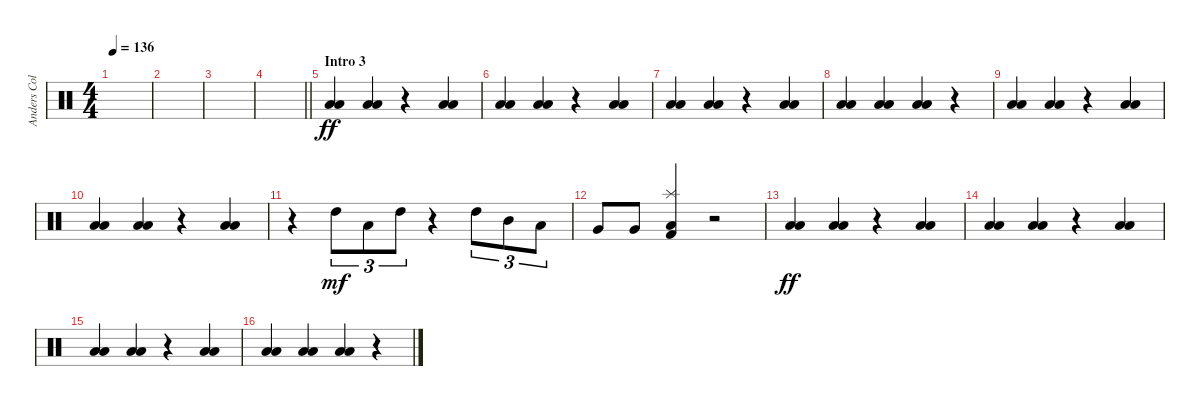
\track ("Anders Colsefni" "Anders Col") {instrument percussion}
\staff {score}
\articulation defaults
\ts (4 4)
\tempo 136
\clef neutral
\ks c
|
|
|
\barLineRight lightlight
|
\section ("" "Intro 3")
("Low Floor Tom (hit)" "Low Floor Tom (hit)").4{dy ff} ("Low Floor Tom (hit)" "Low Floor Tom (hit)").4 r.4 ("Low Floor Tom (hit)" "Low Floor Tom (hit)").4 |
("Low Floor Tom (hit)" "Low Floor Tom (hit)").4 ("Low Floor Tom (hit)" "Low Floor Tom (hit)").4 r.4 ("Low Floor Tom (hit)" "Low Floor Tom (hit)").4 |
("Low Floor Tom (hit)" "Low Floor Tom (hit)").4 ("Low Floor Tom (hit)" "Low Floor Tom (hit)").4 r.4 ("Low Floor Tom (hit)" "Low Floor Tom (hit)").4 |
("Low Floor Tom (hit)" "Low Floor Tom (hit)").4 ("Low Floor Tom (hit)" "Low Floor Tom (hit)").4 ("Low Floor Tom (hit)" "Low Floor Tom (hit)").4 r.4 |
("Low Floor Tom (hit)" "Low Floor Tom (hit)").4 ("Low Floor Tom (hit)" "Low Floor Tom (hit)").4 r.4 ("Low Floor Tom (hit)" "Low Floor Tom (hit)").4 |
("Low Floor Tom (hit)" "Low Floor Tom (hit)").4 ("Low Floor Tom (hit)" "Low Floor Tom (hit)").4 r.4 ("Low Floor Tom (hit)" "Low Floor Tom (hit)").4 |
r.4 "High Tom (hit)".8{tu (3 2) dy mf} "Low Tom (hit)".8{tu (3 2)} "High Tom (hit)".8{tu (3 2)} r.4 "High Tom (hit)".8{tu (3 2)} "Mid Tom (hit)".8{tu (3 2)} "Low Tom (hit)".8{tu (3 2)} |
"Very Low Tom (hit)".8 "Very Low Tom (hit)".8 ("Splash (hit)" "Low Floor Tom (hit)" "Kick (hit) 2").4 r.2 |
("Low Floor Tom (hit)" "Low Floor Tom (hit)").4{dy ff} ("Low Floor Tom (hit)" "Low Floor Tom (hit)").4 r.4 ("Low Floor Tom (hit)" "Low Floor Tom (hit)").4 |
("Low Floor Tom (hit)" "Low Floor Tom (hit)").4 ("Low Floor Tom (hit)" "Low Floor Tom (hit)").4 r.4 ("Low Floor Tom (hit)" "Low Floor Tom (hit)").4 |
("Low Floor Tom (hit)" "Low Floor Tom (hit)").4 ("Low Floor Tom (hit)" "Low Floor Tom (hit)").4 r.4 ("Low Floor Tom (hit)" "Low Floor Tom (hit)").4 |
("Low Floor Tom (hit)" "Low Floor Tom (hit)").4 ("Low Floor Tom (hit)" "Low Floor Tom (hit)").4 ("Low Floor Tom (hit)" "Low Floor Tom (hit)").4 r.4
